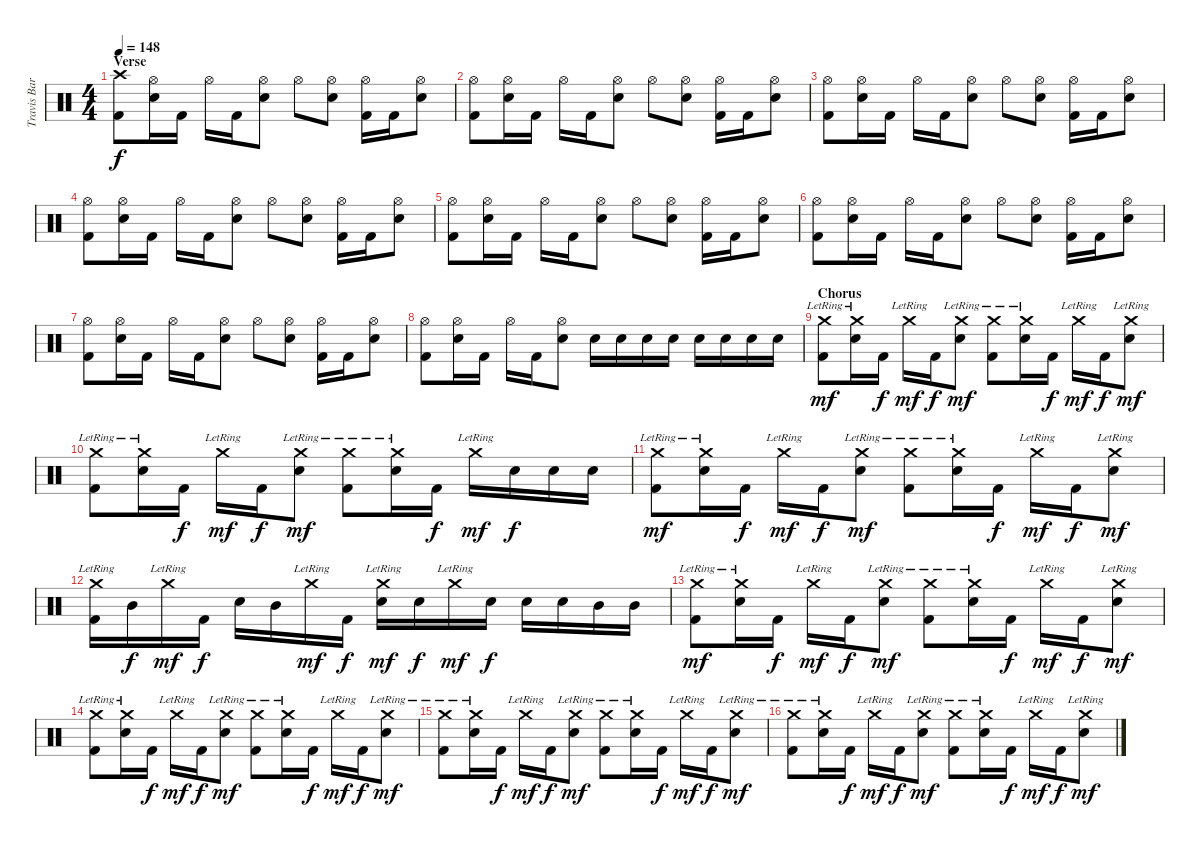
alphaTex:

\track ("Travis Barker - Drums" "Travis Bar") {instrument percussion}
\staff {score}
\articulation defaults
\ts (4 4)
\section ("" "Verse")
\tempo 148
\clef neutral
\ks c
("Crash high (hit)" "Kick (hit) 2").8{dy f} ("Hi-Hat (open)" "Electric Snare (hit)").16 "Kick (hit) 2".16 "Hi-Hat (open)".16 "Kick (hit) 2".16 ("Hi-Hat (open)" "Electric Snare (hit)").8 "Hi-Hat (open)".8 ("Hi-Hat (open)" "Electric Snare (hit)").8 ("Hi-Hat (open)" "Kick (hit) 2").16 "Kick (hit) 2".16 ("Hi-Hat (open)" "Electric Snare (hit)").8 |
("Hi-Hat (open)" "Kick (hit) 2").8 ("Hi-Hat (open)" "Electric Snare (hit)").16 "Kick (hit) 2".16 "Hi-Hat (open)".16 "Kick (hit) 2".16 ("Hi-Hat (open)" "Electric Snare (hit)").8 "Hi-Hat (open)".8 ("Hi-Hat (open)" "Electric Snare (hit)").8 ("Hi-Hat (open)" "Kick (hit) 2").16 "Kick (hit) 2".16 ("Hi-Hat (open)" "Electric Snare (hit)").8 |
("Hi-Hat (open)" "Kick (hit) 2").8 ("Hi-Hat (open)" "Electric Snare (hit)").16 "Kick (hit) 2".16 "Hi-Hat (open)".16 "Kick (hit) 2".16 ("Hi-Hat (open)" "Electric Snare (hit)").8 "Hi-Hat (open)".8 ("Hi-Hat (open)" "Electric Snare (hit)").8 ("Hi-Hat (open)" "Kick (hit) 2").16 "Kick (hit) 2".16 ("Hi-Hat (open)" "Electric Snare (hit)").8 |
("Hi-Hat (open)" "Kick (hit) 2").8 ("Hi-Hat (open)" "Electric Snare (hit)").16 "Kick (hit) 2".16 "Hi-Hat (open)".16 "Kick (hit) 2".16 ("Hi-Hat (open)" "Electric Snare (hit)").8 "Hi-Hat (open)".8 ("Hi-Hat (open)" "Electric Snare (hit)").8 ("Hi-Hat (open)" "Kick (hit) 2").16 "Kick (hit) 2".16 ("Hi-Hat (open)" "Electric Snare (hit)").8 |
("Hi-Hat (open)" "Kick (hit) 2").8 ("Hi-Hat (open)" "Electric Snare (hit)").16 "Kick (hit) 2".16 "Hi-Hat (open)".16 "Kick (hit) 2".16 ("Hi-Hat (open)" "Electric Snare (hit)").8 "Hi-Hat (open)".8 ("Hi-Hat (open)" "Electric Snare (hit)").8 ("Hi-Hat (open)" "Kick (hit) 2").16 "Kick (hit) 2".16 ("Hi-Hat (open)" "Electric Snare (hit)").8 |
("Hi-Hat (open)" "Kick (hit) 2").8 ("Hi-Hat (open)" "Electric Snare (hit)").16 "Kick (hit) 2".16 "Hi-Hat (open)".16 "Kick (hit) 2".16 ("Hi-Hat (open)" "Electric Snare (hit)").8 "Hi-Hat (open)".8 ("Hi-Hat (open)" "Electric Snare (hit)").8 ("Hi-Hat (open)" "Kick (hit) 2").16 "Kick (hit) 2".16 ("Hi-Hat (open)" "Electric Snare (hit)").8 |
("Hi-Hat (open)" "Kick (hit) 2").8 ("Hi-Hat (open)" "Electric Snare (hit)").16 "Kick (hit) 2".16 "Hi-Hat (open)".16 "Kick (hit) 2".16 ("Hi-Hat (open)" "Electric Snare (hit)").8 "Hi-Hat (open)".8 ("Hi-Hat (open)" "Electric Snare (hit)").8 ("Hi-Hat (open)" "Kick (hit) 2").16 "Kick (hit) 2".16 ("Hi-Hat (open)" "Electric Snare (hit)").8 |
("Hi-Hat (open)" "Kick (hit) 2").8 ("Hi-Hat (open)" "Electric Snare (hit)").16 "Kick (hit) 2".16 "Hi-Hat (open)".16 "Kick (hit) 2".16 ("Hi-Hat (open)" "Electric Snare (hit)").8 "Electric Snare (hit)".16 "Electric Snare (hit)".16 "Electric Snare (hit)".16 "Electric Snare (hit)".16 "Electric Snare (hit)".16 "Electric Snare (hit)".16 "Electric Snare (hit)".16 "Electric Snare (hit)".16 |
\section ("" "Chorus")
("Crash medium (hit)"{lr} "Kick (hit) 2").8{dy mf} ("Crash medium (hit)"{lr} "Electric Snare (hit)").16 "Kick (hit) 2".16{dy f} "Crash medium (hit)"{lr}.16{dy mf} "Kick (hit) 2".16{dy f} ("Crash medium (hit)"{lr} "Electric Snare (hit)").8{dy mf} ("Crash medium (hit)"{lr} "Kick (hit) 2").8 ("Crash medium (hit)"{lr} "Electric Snare (hit)").16 "Kick (hit) 2".16{dy f} "Crash medium (hit)"{lr}.16{dy mf} "Kick (hit) 2".16{dy f} ("Crash medium (hit)"{lr} "Electric Snare (hit)").8{dy mf} |
("Crash medium (hit)"{lr} "Kick (hit) 2").8 ("Crash medium (hit)"{lr} "Electric Snare (hit)").16 "Kick (hit) 2".16{dy f} "Crash medium (hit)"{lr}.16{dy mf} "Kick (hit) 2".16{dy f} ("Crash medium (hit)"{lr} "Electric Snare (hit)").8{dy mf} ("Crash medium (hit)"{lr} "Kick (hit) 2").8 ("Crash medium (hit)"{lr} "Electric Snare (hit)").16 "Kick (hit) 2".16{dy f} "Crash medium (hit)"{lr}.16{dy mf} "Electric Snare (hit)".16{dy f} "Electric Snare (hit)".16 "Electric Snare (hit)".16 |
("Crash medium (hit)"{lr} "Kick (hit) 2").8{dy mf} ("Crash medium (hit)"{lr} "Electric Snare (hit)").16 "Kick (hit) 2".16{dy f} "Crash medium (hit)"{lr}.16{dy mf} "Kick (hit) 2".16{dy f} ("Crash medium (hit)"{lr} "Electric Snare (hit)").8{dy mf} ("Crash medium (hit)"{lr} "Kick (hit) 2").8 ("Crash medium (hit)"{lr} "Electric Snare (hit)").16 "Kick (hit) 2".16{dy f} "Crash medium (hit)"{lr}.16{dy mf} "Kick (hit) 2".16{dy f} ("Crash medium (hit)"{lr} "Electric Snare (hit)").8{dy mf} |
("Crash medium (hit)"{lr} "Kick (hit) 2").16 "Mid Tom (hit)".16{dy f} "Crash medium (hit)"{lr}.16{dy mf} "Kick (hit) 2".16{dy f} "Electric Snare (hit)".16 "Mid Tom (hit)".16 "Crash medium (hit)"{lr}.16{dy mf} "Kick (hit) 2".16{dy f} ("Crash medium (hit)"{lr} "Electric Snare (hit)").16{dy mf} "Electric Snare (hit)".16{dy f} "Crash medium (hit)"{lr}.16{dy mf} "Electric Snare (hit)".16{dy f} "Electric Snare (hit)".16 "Electric Snare (hit)".16 "Mid Tom (hit)".16 "Mid Tom (hit)".16 |
("Crash medium (hit)"{lr} "Kick (hit) 2").8{dy mf} ("Crash medium (hit)"{lr} "Electric Snare (hit)").16 "Kick (hit) 2".16{dy f} "Crash medium (hit)"{lr}.16{dy mf} "Kick (hit) 2".16{dy f} ("Crash medium (hit)"{lr} "Electric Snare (hit)").8{dy mf} ("Crash medium (hit)"{lr} "Kick (hit) 2").8 ("Crash medium (hit)"{lr} "Electric Snare (hit)").16 "Kick (hit) 2".16{dy f} "Crash medium (hit)"{lr}.16{dy mf} "Kick (hit) 2".16{dy f} ("Crash medium (hit)"{lr} "Electric Snare (hit)").8{dy mf} |
("Crash medium (hit)"{lr} "Kick (hit) 2").8 ("Crash medium (hit)"{lr} "Electric Snare (hit)").16 "Kick (hit) 2".16{dy f} "Crash medium (hit)"{lr}.16{dy mf} "Kick (hit) 2".16{dy f} ("Crash medium (hit)"{lr} "Electric Snare (hit)").8{dy mf} ("Crash medium (hit)"{lr} "Kick (hit) 2").8 ("Crash medium (hit)"{lr} "Electric Snare (hit)").16 "Kick (hit) 2".16{dy f} "Crash medium (hit)"{lr}.16{dy mf} "Kick (hit) 2".16{dy f} ("Crash medium (hit)"{lr} "Electric Snare (hit)").8{dy mf} |
("Crash medium (hit)"{lr} "Kick (hit) 2").8 ("Crash medium (hit)"{lr} "Electric Snare (hit)").16 "Kick (hit) 2".16{dy f} "Crash medium (hit)"{lr}.16{dy mf} "Kick (hit) 2".16{dy f} ("Crash medium (hit)"{lr} "Electric Snare (hit)").8{dy mf} ("Crash medium (hit)"{lr} "Kick (hit) 2").8 ("Crash medium (hit)"{lr} "Electric Snare (hit)").16 "Kick (hit) 2".16{dy f} "Crash medium (hit)"{lr}.16{dy mf} "Kick (hit) 2".16{dy f} ("Crash medium (hit)"{lr} "Electric Snare (hit)").8{dy mf} |
("Crash medium (hit)"{lr} "Kick (hit) 2").8 ("Crash medium (hit)"{lr} "Electric Snare (hit)").16 "Kick (hit) 2".16{dy f} "Crash medium (hit)"{lr}.16{dy mf} "Kick (hit) 2".16{dy f} ("Crash medium (hit)"{lr} "Electric Snare (hit)").8{dy mf} ("Crash medium (hit)"{lr} "Kick (hit) 2").8 ("Crash medium (hit)"{lr} "Electric Snare (hit)").16 "Kick (hit) 2".16{dy f} "Crash medium (hit)"{lr}.16{dy mf} "Kick (hit) 2".16{dy f} ("Crash medium (hit)"{lr} "Electric Snare (hit)").8{dy mf}
